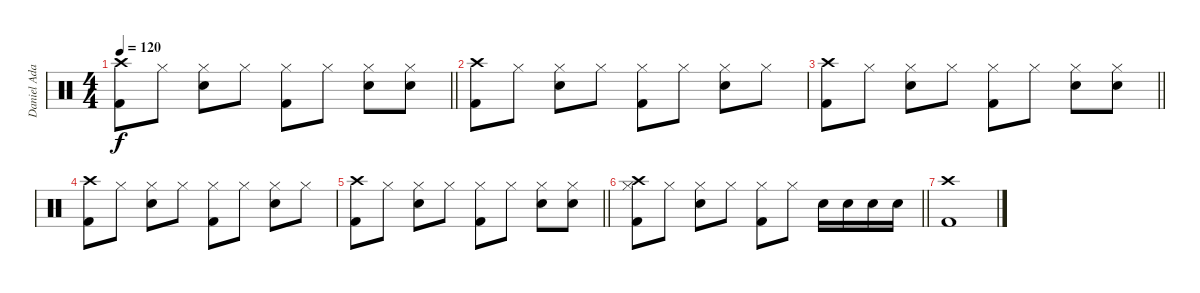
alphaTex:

\track ("Daniel Adair" "Daniel Ada") {instrument percussion}
\staff {score}
\articulation defaults
\ts (4 4)
\tempo 120
\clef neutral
\barLineRight lightlight
\ks c
("Crash high (hit)" "Kick (hit) 2").8{dy f} "Hi-Hat (closed)".8 ("Hi-Hat (closed)" "Electric Snare (hit)").8 "Hi-Hat (closed)".8 ("Hi-Hat (closed)" "Kick (hit) 2").8 "Hi-Hat (closed)".8 ("Hi-Hat (closed)" "Electric Snare (hit)").8 ("Hi-Hat (closed)" "Electric Snare (hit)").8 |
("Crash high (hit)" "Kick (hit) 2").8 "Hi-Hat (closed)".8 ("Hi-Hat (closed)" "Electric Snare (hit)").8 "Hi-Hat (closed)".8 ("Hi-Hat (closed)" "Kick (hit) 2").8 "Hi-Hat (closed)".8 ("Hi-Hat (closed)" "Electric Snare (hit)").8 "Hi-Hat (closed)".8 |
\barLineRight lightlight
("Crash high (hit)" "Kick (hit) 2").8 "Hi-Hat (closed)".8 ("Hi-Hat (closed)" "Electric Snare (hit)").8 "Hi-Hat (closed)".8 ("Hi-Hat (closed)" "Kick (hit) 2").8 "Hi-Hat (closed)".8 ("Hi-Hat (closed)" "Electric Snare (hit)").8 ("Hi-Hat (closed)" "Electric Snare (hit)").8 |
("Crash high (hit)" "Kick (hit) 2").8 "Hi-Hat (closed)".8 ("Hi-Hat (closed)" "Electric Snare (hit)").8 "Hi-Hat (closed)".8 ("Hi-Hat (closed)" "Kick (hit) 2").8 "Hi-Hat (closed)".8 ("Hi-Hat (closed)" "Electric Snare (hit)").8 "Hi-Hat (closed)".8 |
\barLineRight lightlight
("Crash high (hit)" "Kick (hit) 2").8 "Hi-Hat (closed)".8 ("Hi-Hat (closed)" "Electric Snare (hit)").8 "Hi-Hat (closed)".8 ("Hi-Hat (closed)" "Kick (hit) 2").8 "Hi-Hat (closed)".8 ("Hi-Hat (closed)" "Electric Snare (hit)").8 ("Hi-Hat (closed)" "Electric Snare (hit)").8 |
\barLineRight lightlight
("Crash high (hit)" "Hi-Hat (closed)" "Kick (hit) 2").8 "Hi-Hat (closed)".8 ("Hi-Hat (closed)" "Electric Snare (hit)").8 "Hi-Hat (closed)".8 ("Hi-Hat (closed)" "Kick (hit) 2").8 "Hi-Hat (closed)".8 "Electric Snare (hit)".16 "Electric Snare (hit)".16 "Electric Snare (hit)".16 "Electric Snare (hit)".16 |
("Crash high (hit)" "Kick (hit) 2").1
